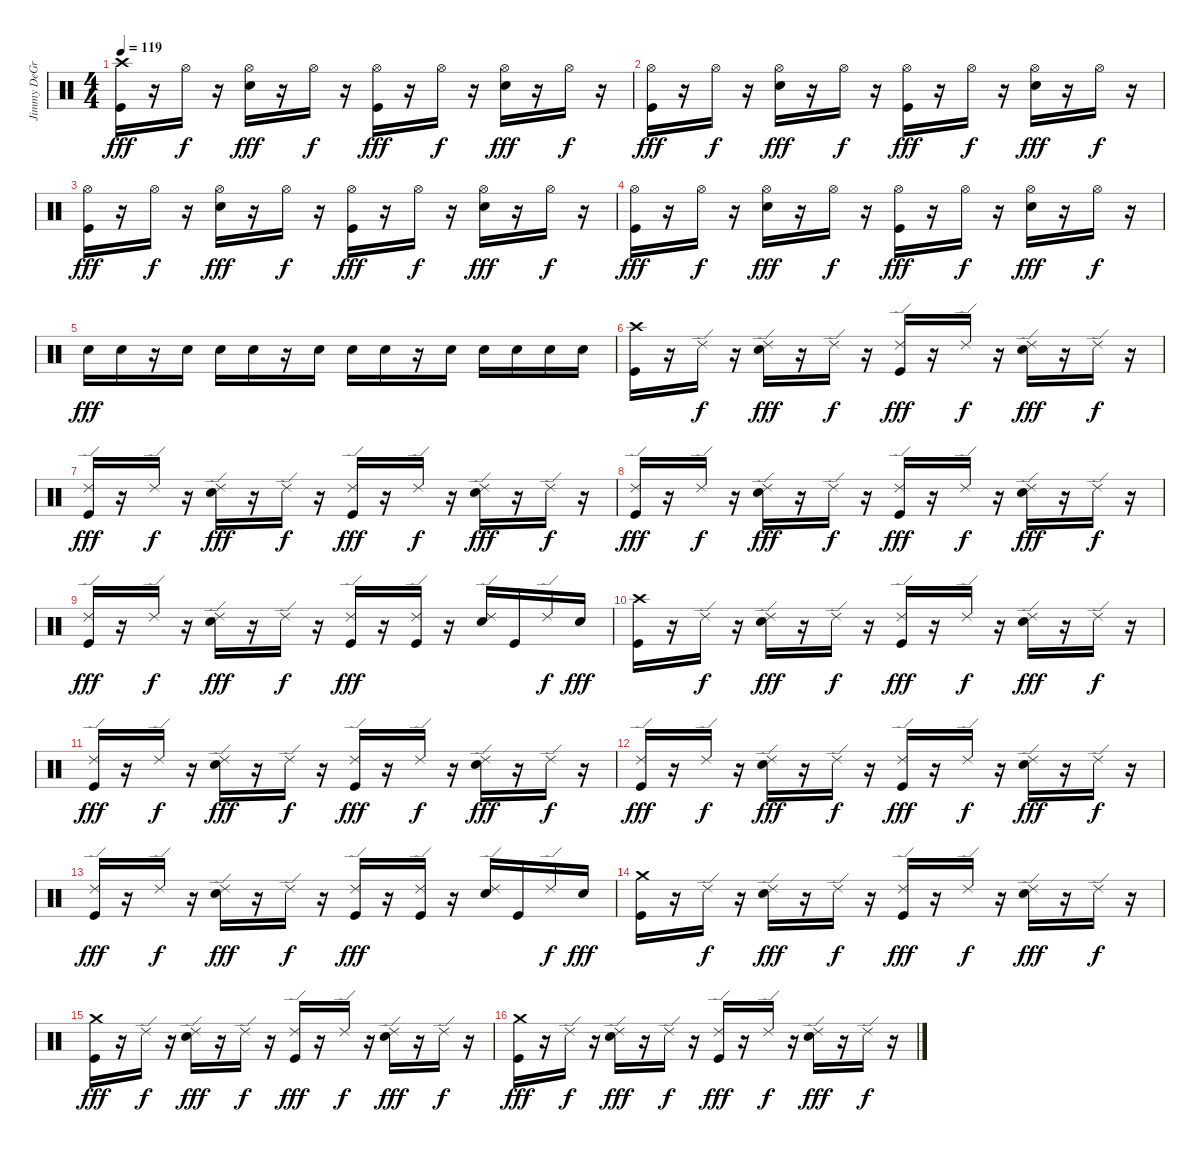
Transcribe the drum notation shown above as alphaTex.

\track ("Jimmy DeGrasso" "Jimmy DeGr") {instrument percussion}
\staff {score}
\articulation defaults
\ts (4 4)
\tempo 119
\clef neutral
\ks c
("Kick (hit)" "Crash high (hit)").16{dy fff} r.16 "Hi-Hat (open)".16{dy f} r.16 ("Electric Snare (hit)" "Hi-Hat (open)").16{dy fff} r.16 "Hi-Hat (open)".16{dy f} r.16 ("Kick (hit)" "Hi-Hat (open)").16{dy fff} r.16 "Hi-Hat (open)".16{dy f} r.16 ("Electric Snare (hit)" "Hi-Hat (open)").16{dy fff} r.16 "Hi-Hat (open)".16{dy f} r.16 |
("Kick (hit)" "Hi-Hat (open)").16{dy fff} r.16 "Hi-Hat (open)".16{dy f} r.16 ("Electric Snare (hit)" "Hi-Hat (open)").16{dy fff} r.16 "Hi-Hat (open)".16{dy f} r.16 ("Kick (hit)" "Hi-Hat (open)").16{dy fff} r.16 "Hi-Hat (open)".16{dy f} r.16 ("Electric Snare (hit)" "Hi-Hat (open)").16{dy fff} r.16 "Hi-Hat (open)".16{dy f} r.16 |
("Kick (hit)" "Hi-Hat (open)").16{dy fff} r.16 "Hi-Hat (open)".16{dy f} r.16 ("Electric Snare (hit)" "Hi-Hat (open)").16{dy fff} r.16 "Hi-Hat (open)".16{dy f} r.16 ("Kick (hit)" "Hi-Hat (open)").16{dy fff} r.16 "Hi-Hat (open)".16{dy f} r.16 ("Electric Snare (hit)" "Hi-Hat (open)").16{dy fff} r.16 "Hi-Hat (open)".16{dy f} r.16 |
("Kick (hit)" "Hi-Hat (open)").16{dy fff} r.16 "Hi-Hat (open)".16{dy f} r.16 ("Electric Snare (hit)" "Hi-Hat (open)").16{dy fff} r.16 "Hi-Hat (open)".16{dy f} r.16 ("Kick (hit)" "Hi-Hat (open)").16{dy fff} r.16 "Hi-Hat (open)".16{dy f} r.16 ("Electric Snare (hit)" "Hi-Hat (open)").16{dy fff} r.16 "Hi-Hat (open)".16{dy f} r.16 |
"Electric Snare (hit)".16{dy fff} "Electric Snare (hit)".16 r.16 "Electric Snare (hit)".16 "Electric Snare (hit)".16 "Electric Snare (hit)".16 r.16 "Electric Snare (hit)".16 "Electric Snare (hit)".16 "Electric Snare (hit)".16 r.16 "Electric Snare (hit)".16 "Electric Snare (hit)".16 "Electric Snare (hit)".16 "Electric Snare (hit)".16 "Electric Snare (hit)".16 |
("Kick (hit)" "Crash high (hit)").16 r.16 "Ride (edge) 2".16{dy f} r.16 ("Electric Snare (hit)" "Ride (edge) 2").16{dy fff} r.16 "Ride (edge) 2".16{dy f} r.16 ("Kick (hit)" "Ride (edge) 2").16{dy fff} r.16 "Ride (edge) 2".16{dy f} r.16 ("Electric Snare (hit)" "Ride (edge) 2").16{dy fff} r.16 "Ride (edge) 2".16{dy f} r.16 |
("Kick (hit)" "Ride (edge) 2").16{dy fff} r.16 "Ride (edge) 2".16{dy f} r.16 ("Electric Snare (hit)" "Ride (edge) 2").16{dy fff} r.16 "Ride (edge) 2".16{dy f} r.16 ("Kick (hit)" "Ride (edge) 2").16{dy fff} r.16 "Ride (edge) 2".16{dy f} r.16 ("Electric Snare (hit)" "Ride (edge) 2").16{dy fff} r.16 "Ride (edge) 2".16{dy f} r.16 |
("Kick (hit)" "Ride (edge) 2").16{dy fff} r.16 "Ride (edge) 2".16{dy f} r.16 ("Electric Snare (hit)" "Ride (edge) 2").16{dy fff} r.16 "Ride (edge) 2".16{dy f} r.16 ("Kick (hit)" "Ride (edge) 2").16{dy fff} r.16 "Ride (edge) 2".16{dy f} r.16 ("Electric Snare (hit)" "Ride (edge) 2").16{dy fff} r.16 "Ride (edge) 2".16{dy f} r.16 |
("Kick (hit)" "Ride (edge) 2").16{dy fff} r.16 "Ride (edge) 2".16{dy f} r.16 ("Electric Snare (hit)" "Ride (edge) 2").16{dy fff} r.16 "Ride (edge) 2".16{dy f} r.16 ("Kick (hit)" "Ride (edge) 2").16{dy fff} r.16 ("Kick (hit)" "Ride (edge) 2").16 r.16 ("Electric Snare (hit)" "Ride (edge) 2").16 "Kick (hit)".16 "Ride (edge) 2".16{dy f} "Electric Snare (hit)".16{dy fff} |
("Kick (hit)" "Crash high (hit)").16 r.16 "Ride (edge) 2".16{dy f} r.16 ("Electric Snare (hit)" "Ride (edge) 2").16{dy fff} r.16 "Ride (edge) 2".16{dy f} r.16 ("Kick (hit)" "Ride (edge) 2").16{dy fff} r.16 "Ride (edge) 2".16{dy f} r.16 ("Electric Snare (hit)" "Ride (edge) 2").16{dy fff} r.16 "Ride (edge) 2".16{dy f} r.16 |
("Kick (hit)" "Ride (edge) 2").16{dy fff} r.16 "Ride (edge) 2".16{dy f} r.16 ("Electric Snare (hit)" "Ride (edge) 2").16{dy fff} r.16 "Ride (edge) 2".16{dy f} r.16 ("Kick (hit)" "Ride (edge) 2").16{dy fff} r.16 "Ride (edge) 2".16{dy f} r.16 ("Electric Snare (hit)" "Ride (edge) 2").16{dy fff} r.16 "Ride (edge) 2".16{dy f} r.16 |
("Kick (hit)" "Ride (edge) 2").16{dy fff} r.16 "Ride (edge) 2".16{dy f} r.16 ("Electric Snare (hit)" "Ride (edge) 2").16{dy fff} r.16 "Ride (edge) 2".16{dy f} r.16 ("Kick (hit)" "Ride (edge) 2").16{dy fff} r.16 "Ride (edge) 2".16{dy f} r.16 ("Electric Snare (hit)" "Ride (edge) 2").16{dy fff} r.16 "Ride (edge) 2".16{dy f} r.16 |
("Kick (hit)" "Ride (edge) 2").16{dy fff} r.16 "Ride (edge) 2".16{dy f} r.16 ("Electric Snare (hit)" "Ride (edge) 2").16{dy fff} r.16 "Ride (edge) 2".16{dy f} r.16 ("Kick (hit)" "Ride (edge) 2").16{dy fff} r.16 ("Kick (hit)" "Ride (edge) 2").16 r.16 ("Electric Snare (hit)" "Ride (edge) 2").16 "Kick (hit)".16 "Ride (edge) 2".16{dy f} "Electric Snare (hit)".16{dy fff} |
("Kick (hit)" "Crash medium (hit)").16 r.16 "Ride (edge) 2".16{dy f} r.16 ("Electric Snare (hit)" "Ride (edge) 2").16{dy fff} r.16 "Ride (edge) 2".16{dy f} r.16 ("Kick (hit)" "Ride (edge) 2").16{dy fff} r.16 "Ride (edge) 2".16{dy f} r.16 ("Electric Snare (hit)" "Ride (edge) 2").16{dy fff} r.16 "Ride (edge) 2".16{dy f} r.16 |
("Kick (hit)" "Crash medium (hit)").16{dy fff} r.16 "Ride (edge) 2".16{dy f} r.16 ("Electric Snare (hit)" "Ride (edge) 2").16{dy fff} r.16 "Ride (edge) 2".16{dy f} r.16 ("Kick (hit)" "Ride (edge) 2").16{dy fff} r.16 "Ride (edge) 2".16{dy f} r.16 ("Electric Snare (hit)" "Ride (edge) 2").16{dy fff} r.16 "Ride (edge) 2".16{dy f} r.16 |
("Kick (hit)" "Crash medium (hit)").16{dy fff} r.16 "Ride (edge) 2".16{dy f} r.16 ("Electric Snare (hit)" "Ride (edge) 2").16{dy fff} r.16 "Ride (edge) 2".16{dy f} r.16 ("Kick (hit)" "Ride (edge) 2").16{dy fff} r.16 "Ride (edge) 2".16{dy f} r.16 ("Electric Snare (hit)" "Ride (edge) 2").16{dy fff} r.16 "Ride (edge) 2".16{dy f} r.16
